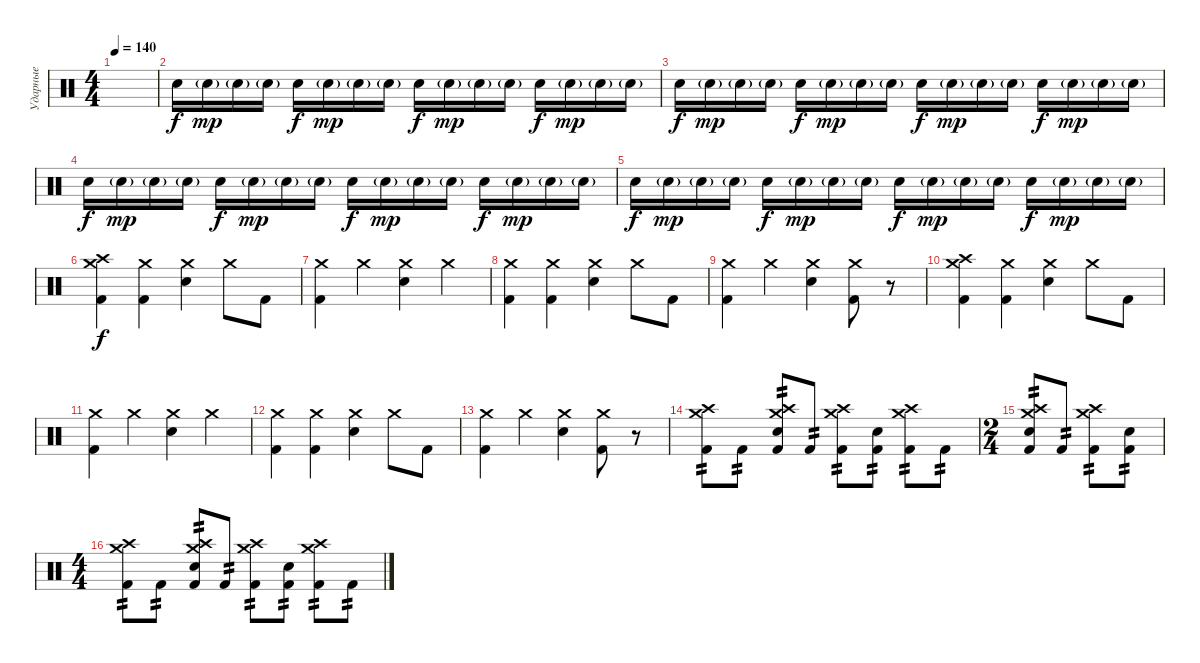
\track ("Ударные" "Ударные") {instrument percussion}
\staff {score}
\articulation defaults
\ts (4 4)
\tempo 140
\clef neutral
\ks c
|
"Electric Snare (hit)".16 "Electric Snare (hit)"{g}.16{dy mp} "Electric Snare (hit)"{g}.16 "Electric Snare (hit)"{g}.16 "Electric Snare (hit)".16{dy f} "Electric Snare (hit)"{g}.16{dy mp} "Electric Snare (hit)"{g}.16 "Electric Snare (hit)"{g}.16 "Electric Snare (hit)".16{dy f} "Electric Snare (hit)"{g}.16{dy mp} "Electric Snare (hit)"{g}.16 "Electric Snare (hit)"{g}.16 "Electric Snare (hit)".16{dy f} "Electric Snare (hit)"{g}.16{dy mp} "Electric Snare (hit)"{g}.16 "Electric Snare (hit)"{g}.16 |
"Electric Snare (hit)".16{dy f} "Electric Snare (hit)"{g}.16{dy mp} "Electric Snare (hit)"{g}.16 "Electric Snare (hit)"{g}.16 "Electric Snare (hit)".16{dy f} "Electric Snare (hit)"{g}.16{dy mp} "Electric Snare (hit)"{g}.16 "Electric Snare (hit)"{g}.16 "Electric Snare (hit)".16{dy f} "Electric Snare (hit)"{g}.16{dy mp} "Electric Snare (hit)"{g}.16 "Electric Snare (hit)"{g}.16 "Electric Snare (hit)".16{dy f} "Electric Snare (hit)"{g}.16{dy mp} "Electric Snare (hit)"{g}.16 "Electric Snare (hit)"{g}.16 |
"Electric Snare (hit)".16{dy f} "Electric Snare (hit)"{g}.16{dy mp} "Electric Snare (hit)"{g}.16 "Electric Snare (hit)"{g}.16 "Electric Snare (hit)".16{dy f} "Electric Snare (hit)"{g}.16{dy mp} "Electric Snare (hit)"{g}.16 "Electric Snare (hit)"{g}.16 "Electric Snare (hit)".16{dy f} "Electric Snare (hit)"{g}.16{dy mp} "Electric Snare (hit)"{g}.16 "Electric Snare (hit)"{g}.16 "Electric Snare (hit)".16{dy f} "Electric Snare (hit)"{g}.16{dy mp} "Electric Snare (hit)"{g}.16 "Electric Snare (hit)"{g}.16 |
"Electric Snare (hit)".16{dy f} "Electric Snare (hit)"{g}.16{dy mp} "Electric Snare (hit)"{g}.16 "Electric Snare (hit)"{g}.16 "Electric Snare (hit)".16{dy f} "Electric Snare (hit)"{g}.16{dy mp} "Electric Snare (hit)"{g}.16 "Electric Snare (hit)"{g}.16 "Electric Snare (hit)".16{dy f} "Electric Snare (hit)"{g}.16{dy mp} "Electric Snare (hit)"{g}.16 "Electric Snare (hit)"{g}.16 "Electric Snare (hit)".16{dy f} "Electric Snare (hit)"{g}.16{dy mp} "Electric Snare (hit)"{g}.16 "Electric Snare (hit)"{g}.16 |
("Crash high (hit)" "Crash medium (hit)" "Kick (hit) 2").4{dy f} ("Crash medium (hit)" "Kick (hit) 2").4 ("Crash medium (hit)" "Electric Snare (hit)").4 "Crash medium (hit)".8 "Kick (hit) 2".8 |
("Crash medium (hit)" "Kick (hit) 2").4 "Crash medium (hit)".4 ("Crash medium (hit)" "Electric Snare (hit)").4 "Crash medium (hit)".4 |
("Crash medium (hit)" "Kick (hit) 2").4 ("Crash medium (hit)" "Kick (hit) 2").4 ("Crash medium (hit)" "Electric Snare (hit)").4 "Crash medium (hit)".8 "Kick (hit) 2".8 |
("Crash medium (hit)" "Kick (hit) 2").4 "Crash medium (hit)".4 ("Crash medium (hit)" "Electric Snare (hit)").4 ("Crash medium (hit)" "Kick (hit) 2").8 r.8 |
("Crash high (hit)" "Crash medium (hit)" "Kick (hit) 2").4 ("Crash medium (hit)" "Kick (hit) 2").4 ("Crash medium (hit)" "Electric Snare (hit)").4 "Crash medium (hit)".8 "Kick (hit) 2".8 |
("Crash medium (hit)" "Kick (hit) 2").4 "Crash medium (hit)".4 ("Crash medium (hit)" "Electric Snare (hit)").4 "Crash medium (hit)".4 |
("Crash medium (hit)" "Kick (hit) 2").4 ("Crash medium (hit)" "Kick (hit) 2").4 ("Crash medium (hit)" "Electric Snare (hit)").4 "Crash medium (hit)".8 "Kick (hit) 2".8 |
("Crash medium (hit)" "Kick (hit) 2").4 "Crash medium (hit)".4 ("Crash medium (hit)" "Electric Snare (hit)").4 ("Crash medium (hit)" "Kick (hit) 2").8 r.8 |
("Crash high (hit)" "Crash medium (hit)" "Kick (hit) 2").8{tp 2} "Kick (hit) 2".8{tp 2} ("Crash high (hit)" "Crash medium (hit)" "Electric Snare (hit)" "Kick (hit) 2").8{tp 2} "Kick (hit) 2".8{tp 2} ("Crash high (hit)" "Crash medium (hit)" "Kick (hit) 2").8{tp 2} ("Electric Snare (hit)" "Kick (hit) 2").8{tp 2} ("Crash high (hit)" "Crash medium (hit)" "Kick (hit) 2").8{tp 2} "Kick (hit) 2".8{tp 2} |
\ts (2 4)
("Crash high (hit)" "Crash medium (hit)" "Electric Snare (hit)" "Kick (hit) 2").8{tp 2} "Kick (hit) 2".8{tp 2} ("Crash high (hit)" "Crash medium (hit)" "Kick (hit) 2").8{tp 2} ("Electric Snare (hit)" "Kick (hit) 2").8{tp 2} |
\ts (4 4)
("Crash high (hit)" "Crash medium (hit)" "Kick (hit) 2").8{tp 2} "Kick (hit) 2".8{tp 2} ("Crash high (hit)" "Crash medium (hit)" "Electric Snare (hit)" "Kick (hit) 2").8{tp 2} "Kick (hit) 2".8{tp 2} ("Crash high (hit)" "Crash medium (hit)" "Kick (hit) 2").8{tp 2} ("Electric Snare (hit)" "Kick (hit) 2").8{tp 2} ("Crash high (hit)" "Crash medium (hit)" "Kick (hit) 2").8{tp 2} "Kick (hit) 2".8{tp 2}
